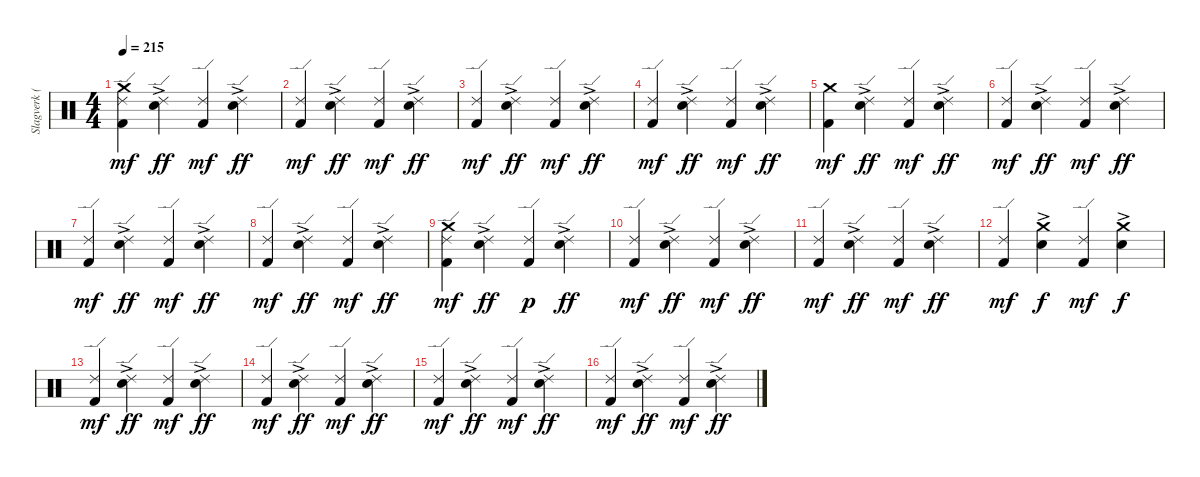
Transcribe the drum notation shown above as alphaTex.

\track ("Slagverk (Jan Kristiansen)" "Slagverk (") {instrument percussion}
\staff {score}
\articulation defaults
\ts (4 4)
\tempo 215
\clef neutral
\ks c
("Crash medium (hit)" "Ride (edge) 2" "Kick (hit) 2").4{dy mf} ("Ride (edge) 2"{ac} "Snare (hit) 2").4{dy ff} ("Ride (edge) 2" "Kick (hit) 2").4{dy mf} ("Ride (edge) 2"{ac} "Snare (hit) 2").4{dy ff} |
("Ride (edge) 2" "Kick (hit) 2").4{dy mf} ("Ride (edge) 2"{ac} "Snare (hit) 2").4{dy ff} ("Ride (edge) 2" "Kick (hit) 2").4{dy mf} ("Ride (edge) 2"{ac} "Snare (hit) 2").4{dy ff} |
("Ride (edge) 2" "Kick (hit) 2").4{dy mf} ("Ride (edge) 2"{ac} "Snare (hit) 2").4{dy ff} ("Ride (edge) 2" "Kick (hit) 2").4{dy mf} ("Ride (edge) 2"{ac} "Snare (hit) 2").4{dy ff} |
("Ride (edge) 2" "Kick (hit) 2").4{dy mf} ("Ride (edge) 2"{ac} "Snare (hit) 2").4{dy ff} ("Ride (edge) 2" "Kick (hit) 2").4{dy mf} ("Ride (edge) 2"{ac} "Snare (hit) 2").4{dy ff} |
("Crash medium (hit)" "Kick (hit) 2").4{dy mf} ("Ride (edge) 2"{ac} "Snare (hit) 2").4{dy ff} ("Ride (edge) 2" "Kick (hit) 2").4{dy mf} ("Ride (edge) 2"{ac} "Snare (hit) 2").4{dy ff} |
("Ride (edge) 2" "Kick (hit) 2").4{dy mf} ("Ride (edge) 2"{ac} "Snare (hit) 2").4{dy ff} ("Ride (edge) 2" "Kick (hit) 2").4{dy mf} ("Ride (edge) 2"{ac} "Snare (hit) 2").4{dy ff} |
("Ride (edge) 2" "Kick (hit) 2").4{dy mf} ("Ride (edge) 2"{ac} "Snare (hit) 2").4{dy ff} ("Ride (edge) 2" "Kick (hit) 2").4{dy mf} ("Ride (edge) 2"{ac} "Snare (hit) 2").4{dy ff} |
("Ride (edge) 2" "Kick (hit) 2").4{dy mf} ("Ride (edge) 2"{ac} "Snare (hit) 2").4{dy ff} ("Ride (edge) 2" "Kick (hit) 2").4{dy mf} ("Ride (edge) 2"{ac} "Snare (hit) 2").4{dy ff} |
("Crash medium (hit)" "Ride (edge) 2" "Kick (hit) 2").4{dy mf} ("Ride (edge) 2"{ac} "Snare (hit) 2").4{dy ff} ("Ride (edge) 2" "Kick (hit) 2").4{dy p} ("Ride (edge) 2"{ac} "Snare (hit) 2").4{dy ff} |
("Ride (edge) 2" "Kick (hit) 2").4{dy mf} ("Ride (edge) 2"{ac} "Snare (hit) 2").4{dy ff} ("Ride (edge) 2" "Kick (hit) 2").4{dy mf} ("Ride (edge) 2"{ac} "Snare (hit) 2").4{dy ff} |
("Ride (edge) 2" "Kick (hit) 2").4{dy mf} ("Ride (edge) 2"{ac} "Snare (hit) 2").4{dy ff} ("Ride (edge) 2" "Kick (hit) 2").4{dy mf} ("Ride (edge) 2"{ac} "Snare (hit) 2").4{dy ff} |
("Ride (edge) 2" "Kick (hit) 2").4{dy mf} ("Crash medium (hit)"{ac} "Snare (hit) 2").4{dy f} ("Ride (edge) 2" "Kick (hit) 2").4{dy mf} ("Crash medium (hit)"{ac} "Snare (hit) 2").4{dy f} |
("Ride (edge) 2" "Kick (hit) 2").4{dy mf} ("Ride (edge) 2"{ac} "Snare (hit) 2").4{dy ff} ("Ride (edge) 2" "Kick (hit) 2").4{dy mf} ("Ride (edge) 2"{ac} "Snare (hit) 2").4{dy ff} |
("Ride (edge) 2" "Kick (hit) 2").4{dy mf} ("Ride (edge) 2"{ac} "Snare (hit) 2").4{dy ff} ("Ride (edge) 2" "Kick (hit) 2").4{dy mf} ("Ride (edge) 2"{ac} "Snare (hit) 2").4{dy ff} |
("Ride (edge) 2" "Kick (hit) 2").4{dy mf} ("Ride (edge) 2"{ac} "Snare (hit) 2").4{dy ff} ("Ride (edge) 2" "Kick (hit) 2").4{dy mf} ("Ride (edge) 2"{ac} "Snare (hit) 2").4{dy ff} |
("Ride (edge) 2" "Kick (hit) 2").4{dy mf} ("Ride (edge) 2"{ac} "Snare (hit) 2").4{dy ff} ("Ride (edge) 2" "Kick (hit) 2").4{dy mf} ("Ride (edge) 2"{ac} "Snare (hit) 2").4{dy ff}
